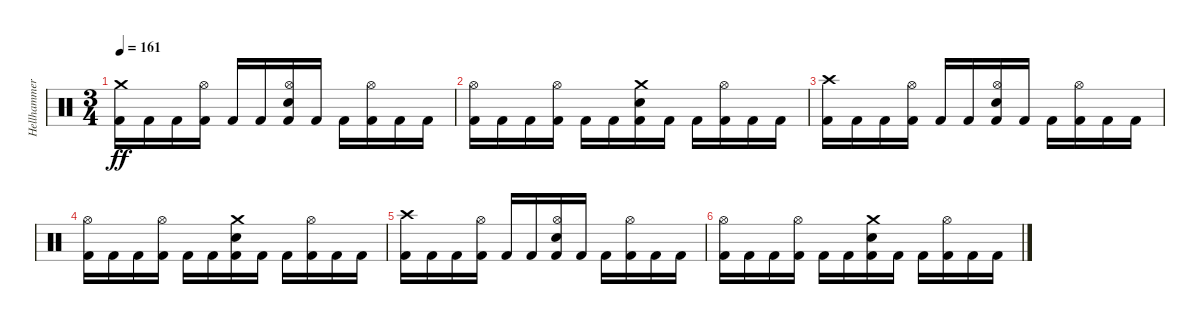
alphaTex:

\track ("Hellhammer" "Hellhammer") {instrument percussion}
\staff {score}
\articulation defaults
\ts (3 4)
\tempo 161
\clef neutral
\ks c
("Crash medium (hit)" "Kick (hit) 2").16{dy ff} "Kick (hit) 2".16 "Kick (hit) 2".16 ("Hi-Hat (open)" "Kick (hit) 2").16 "Kick (hit) 2".16 "Kick (hit) 2".16 ("Hi-Hat (open)" "Snare (hit) 2" "Kick (hit) 2").16 "Kick (hit) 2".16 "Kick (hit) 2".16 ("Hi-Hat (open)" "Kick (hit) 2").16 "Kick (hit) 2".16 "Kick (hit) 2".16 |
("Hi-Hat (open)" "Kick (hit) 2").16 "Kick (hit) 2".16 "Kick (hit) 2".16 ("Hi-Hat (open)" "Kick (hit) 2").16 "Kick (hit) 2".16 "Kick (hit) 2".16 ("Crash medium (hit)" "Snare (hit) 2" "Kick (hit) 2").16 "Kick (hit) 2".16 "Kick (hit) 2".16 ("Hi-Hat (open)" "Kick (hit) 2").16 "Kick (hit) 2".16 "Kick (hit) 2".16 |
("Crash high (hit)" "Kick (hit) 2").16 "Kick (hit) 2".16 "Kick (hit) 2".16 ("Hi-Hat (open)" "Kick (hit) 2").16 "Kick (hit) 2".16 "Kick (hit) 2".16 ("Hi-Hat (open)" "Snare (hit) 2" "Kick (hit) 2").16 "Kick (hit) 2".16 "Kick (hit) 2".16 ("Hi-Hat (open)" "Kick (hit) 2").16 "Kick (hit) 2".16 "Kick (hit) 2".16 |
("Hi-Hat (open)" "Kick (hit) 2").16 "Kick (hit) 2".16 "Kick (hit) 2".16 ("Hi-Hat (open)" "Kick (hit) 2").16 "Kick (hit) 2".16 "Kick (hit) 2".16 ("Crash medium (hit)" "Snare (hit) 2" "Kick (hit) 2").16 "Kick (hit) 2".16 "Kick (hit) 2".16 ("Hi-Hat (open)" "Kick (hit) 2").16 "Kick (hit) 2".16 "Kick (hit) 2".16 |
("Crash high (hit)" "Kick (hit) 2").16 "Kick (hit) 2".16 "Kick (hit) 2".16 ("Hi-Hat (open)" "Kick (hit) 2").16 "Kick (hit) 2".16 "Kick (hit) 2".16 ("Hi-Hat (open)" "Snare (hit) 2" "Kick (hit) 2").16 "Kick (hit) 2".16 "Kick (hit) 2".16 ("Hi-Hat (open)" "Kick (hit) 2").16 "Kick (hit) 2".16 "Kick (hit) 2".16 |
("Hi-Hat (open)" "Kick (hit) 2").16 "Kick (hit) 2".16 "Kick (hit) 2".16 ("Hi-Hat (open)" "Kick (hit) 2").16 "Kick (hit) 2".16 "Kick (hit) 2".16 ("Crash medium (hit)" "Snare (hit) 2" "Kick (hit) 2").16 "Kick (hit) 2".16 "Kick (hit) 2".16 ("Hi-Hat (open)" "Kick (hit) 2").16 "Kick (hit) 2".16 "Kick (hit) 2".16
